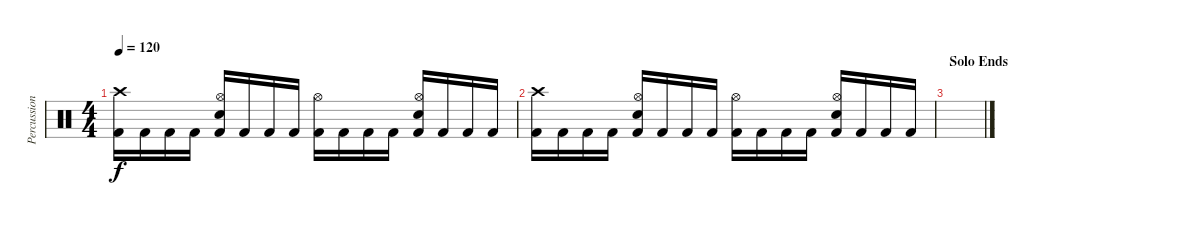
\track ("Percussion" "Percussion") {instrument percussion}
\staff {score}
\articulation defaults
\ts (4 4)
\tempo 120
\clef neutral
\ks c
("Crash high (hit)" "Kick (hit) 2").16{dy f} "Kick (hit) 2".16 "Kick (hit) 2".16 "Kick (hit) 2".16 ("Hi-Hat (open)" "Electric Snare (hit)" "Kick (hit) 2").16 "Kick (hit) 2".16 "Kick (hit) 2".16 "Kick (hit) 2".16 ("Hi-Hat (open)" "Kick (hit) 2").16 "Kick (hit) 2".16 "Kick (hit) 2".16 "Kick (hit) 2".16 ("Hi-Hat (open)" "Electric Snare (hit)" "Kick (hit) 2").16 "Kick (hit) 2".16 "Kick (hit) 2".16 "Kick (hit) 2".16 |
("Crash high (hit)" "Kick (hit) 2").16 "Kick (hit) 2".16 "Kick (hit) 2".16 "Kick (hit) 2".16 ("Hi-Hat (open)" "Electric Snare (hit)" "Kick (hit) 2").16 "Kick (hit) 2".16 "Kick (hit) 2".16 "Kick (hit) 2".16 ("Hi-Hat (open)" "Kick (hit) 2").16 "Kick (hit) 2".16 "Kick (hit) 2".16 "Kick (hit) 2".16 ("Hi-Hat (open)" "Electric Snare (hit)" "Kick (hit) 2").16 "Kick (hit) 2".16 "Kick (hit) 2".16 "Kick (hit) 2".16 |
\section ("" "Solo Ends")
